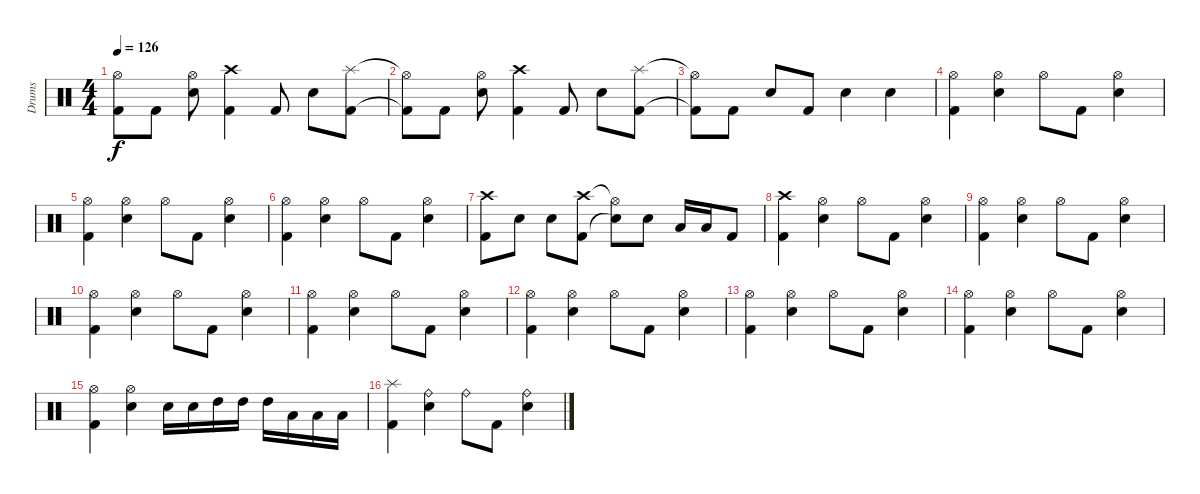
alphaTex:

\track ("Drums" "Drums") {instrument percussion}
\staff {score}
\articulation defaults
\ts (4 4)
\tempo 126
\clef neutral
\ks c
("Hi-Hat (open)"{t} "Kick (hit) 2"{t}).8{dy f} "Kick (hit) 2".8 ("Hi-Hat (open)" "Snare (hit) 2").8 ("Crash high (hit)" "Kick (hit) 2").4 "Kick (hit) 2".8 "Snare (hit) 2".8 ("Splash (hit)" "Kick (hit) 2").8 |
("Hi-Hat (open)"{t} "Kick (hit) 2"{t}).8 "Kick (hit) 2".8 ("Hi-Hat (open)" "Snare (hit) 2").8 ("Crash high (hit)" "Kick (hit) 2").4 "Kick (hit) 2".8 "Snare (hit) 2".8 ("Splash (hit)" "Kick (hit) 2").8 |
("Hi-Hat (open)"{t} "Kick (hit) 2"{t}).8 "Kick (hit) 2".8 "Snare (hit) 2".8 "Kick (hit) 2".8 "Snare (hit) 2".4 "Snare (hit) 2".4 |
("Hi-Hat (open)" "Kick (hit) 2").4 ("Hi-Hat (open)" "Snare (hit) 2").4 "Hi-Hat (open)".8 "Kick (hit) 2".8 ("Hi-Hat (open)" "Snare (hit) 2").4 |
("Hi-Hat (open)" "Kick (hit) 2").4 ("Hi-Hat (open)" "Snare (hit) 2").4 "Hi-Hat (open)".8 "Kick (hit) 2".8 ("Hi-Hat (open)" "Snare (hit) 2").4 |
("Hi-Hat (open)" "Kick (hit) 2").4 ("Hi-Hat (open)" "Snare (hit) 2").4 "Hi-Hat (open)".8 "Kick (hit) 2".8 ("Hi-Hat (open)" "Snare (hit) 2").4 |
("Crash high (hit)" "Kick (hit) 2").8 "Snare (hit) 2".8 "Snare (hit) 2".8 ("Crash high (hit)" "Kick (hit) 2").8 ("Hi-Hat (open)"{t} "Snare (hit)"{t}).8 "Snare (hit) 2".8 "Low Tom (hit)".16 "Low Tom (hit)".16 "Kick (hit) 2".8 |
("Crash high (hit)" "Kick (hit) 2").4 ("Hi-Hat (open)" "Snare (hit) 2").4 "Hi-Hat (open)".8 "Kick (hit) 2".8 ("Hi-Hat (open)" "Snare (hit) 2").4 |
("Hi-Hat (open)" "Kick (hit) 2").4 ("Hi-Hat (open)" "Snare (hit) 2").4 "Hi-Hat (open)".8 "Kick (hit) 2".8 ("Hi-Hat (open)" "Snare (hit) 2").4 |
("Hi-Hat (open)" "Kick (hit) 2").4 ("Hi-Hat (open)" "Snare (hit) 2").4 "Hi-Hat (open)".8 "Kick (hit) 2".8 ("Hi-Hat (open)" "Snare (hit) 2").4 |
("Hi-Hat (open)" "Kick (hit) 2").4 ("Hi-Hat (open)" "Snare (hit) 2").4 "Hi-Hat (open)".8 "Kick (hit) 2".8 ("Hi-Hat (open)" "Snare (hit) 2").4 |
("Hi-Hat (open)" "Kick (hit) 2").4 ("Hi-Hat (open)" "Snare (hit) 2").4 "Hi-Hat (open)".8 "Kick (hit) 2".8 ("Hi-Hat (open)" "Snare (hit) 2").4 |
("Hi-Hat (open)" "Kick (hit) 2").4 ("Hi-Hat (open)" "Snare (hit) 2").4 "Hi-Hat (open)".8 "Kick (hit) 2".8 ("Hi-Hat (open)" "Snare (hit) 2").4 |
("Hi-Hat (open)" "Kick (hit) 2").4 ("Hi-Hat (open)" "Snare (hit) 2").4 "Hi-Hat (open)".8 "Kick (hit) 2".8 ("Hi-Hat (open)" "Snare (hit) 2").4 |
("Hi-Hat (open)" "Kick (hit) 2").4 ("Hi-Hat (open)" "Snare (hit) 2").4 "Snare (hit) 2".16 "Snare (hit) 2".16 "High Tom (hit)".16 "High Tom (hit)".16 "High Tom (hit)".16 "Low Tom (hit)".16 "Low Tom (hit)".16 "Low Tom (hit)".16 |
("Splash (hit)" "Kick (hit) 2").4 ("Ride (bell)" "Snare (hit) 2").4 "Ride (bell)".8 "Kick (hit) 2".8 ("Ride (bell)" "Snare (hit) 2").4
